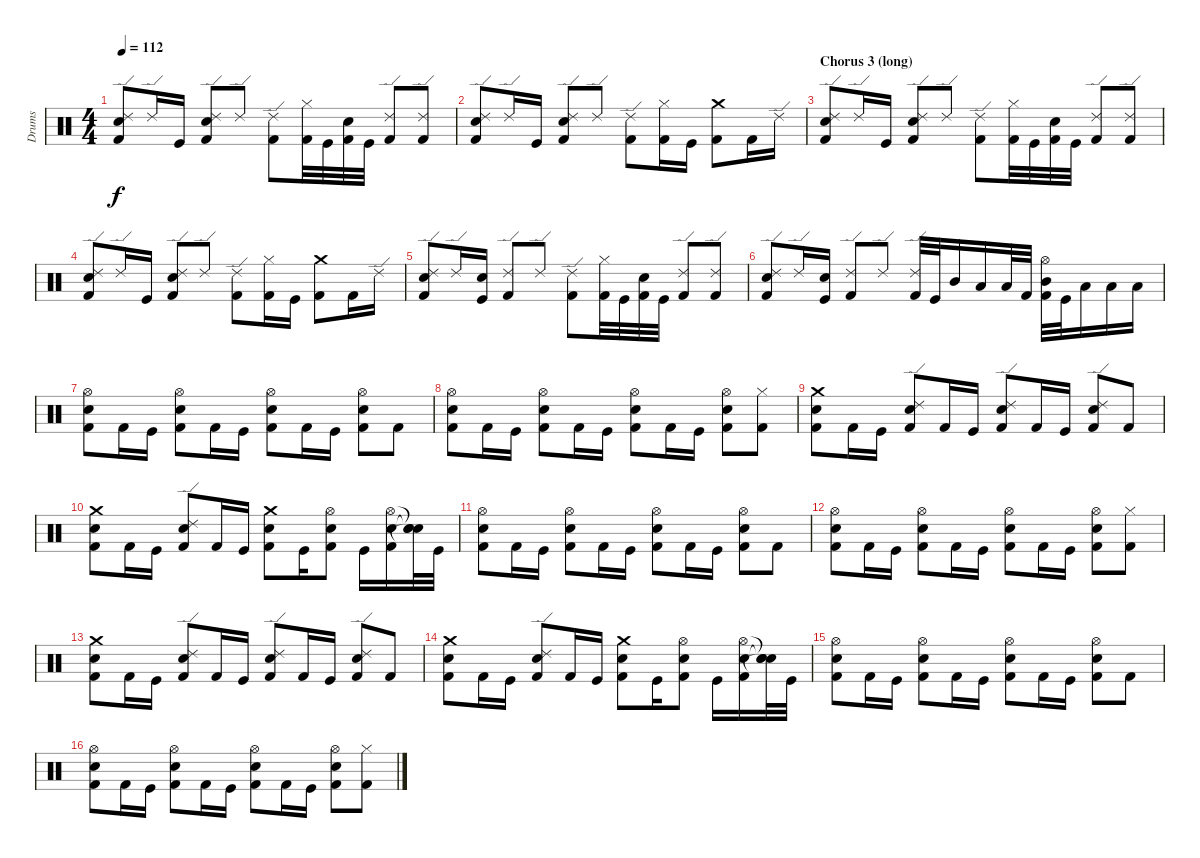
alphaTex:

\track ("Drums" "Drums") {instrument percussion}
\staff {score}
\articulation defaults
\ts (4 4)
\tempo 112
\clef neutral
\ks c
("Ride (edge) 2" "Snare (hit) 2" "Kick (hit) 2").8{dy f} "Ride (edge) 2".16 "Kick (hit)".16 ("Ride (edge) 2" "Snare (hit) 2" "Kick (hit) 2").8 "Ride (edge) 2".8 ("Ride (edge) 2" "Kick (hit) 2").8 ("Hi-Hat (closed)" "Kick (hit) 2").32 "Kick (hit)".32 ("Snare (hit) 2" "Kick (hit) 2").32 "Kick (hit)".32 ("Ride (edge) 2" "Kick (hit) 2").8 ("Ride (edge) 2" "Kick (hit) 2").8 |
("Ride (edge) 2" "Snare (hit) 2" "Kick (hit) 2").8 "Ride (edge) 2".16 "Kick (hit)".16 ("Ride (edge) 2" "Snare (hit) 2" "Kick (hit) 2").8 "Ride (edge) 2".8 ("Ride (edge) 2" "Kick (hit) 2").8 ("Hi-Hat (closed)" "Kick (hit) 2").16 "Kick (hit)".16 ("Crash medium (hit)" "Kick (hit) 2").8 "Kick (hit) 2".16 "Ride (edge) 2".16 |
\section ("" "Chorus 3 (long)")
("Ride (edge) 2" "Snare (hit) 2" "Kick (hit) 2").8 "Ride (edge) 2".16 "Kick (hit)".16 ("Ride (edge) 2" "Snare (hit) 2" "Kick (hit) 2").8 "Ride (edge) 2".8 ("Ride (edge) 2" "Kick (hit) 2").8 ("Hi-Hat (closed)" "Kick (hit) 2").32 "Kick (hit)".32 ("Snare (hit) 2" "Kick (hit) 2").32 "Kick (hit)".32 ("Ride (edge) 2" "Kick (hit) 2").8 ("Ride (edge) 2" "Kick (hit) 2").8 |
("Ride (edge) 2" "Snare (hit) 2" "Kick (hit) 2").8 "Ride (edge) 2".16 "Kick (hit)".16 ("Ride (edge) 2" "Snare (hit) 2" "Kick (hit) 2").8 "Ride (edge) 2".8 ("Ride (edge) 2" "Kick (hit) 2").8 ("Hi-Hat (closed)" "Kick (hit) 2").16 "Kick (hit)".16 ("Crash medium (hit)" "Kick (hit) 2").8 "Kick (hit) 2".16 "Ride (edge) 2".16 |
("Ride (edge) 2" "Snare (hit) 2" "Kick (hit) 2").8 "Ride (edge) 2".16 ("Snare (hit) 2" "Kick (hit)").16 ("Ride (edge) 2" "Kick (hit) 2").8 "Ride (edge) 2".8 ("Ride (edge) 2" "Kick (hit) 2").8 ("Hi-Hat (closed)" "Kick (hit) 2").32 "Kick (hit)".32 ("Snare (hit) 2" "Kick (hit) 2").32 "Kick (hit)".32 ("Ride (edge) 2" "Kick (hit) 2").8 ("Ride (edge) 2" "Kick (hit) 2").8 |
("Ride (edge) 2" "Snare (hit) 2" "Kick (hit) 2").8 "Ride (edge) 2".16 ("Snare (hit) 2" "Kick (hit)").16 ("Ride (edge) 2" "Kick (hit) 2").8 "Ride (edge) 2".8 ("Ride (edge) 2" "Kick (hit) 2").32 "Kick (hit)".32 "Mid Tom (hit)".16 "Low Tom (hit)".16 "Low Tom (hit)".32 "Kick (hit) 2".32 ("Hi-Hat (open)" "Mid Tom (hit)" "Kick (hit) 2").32 "Kick (hit)".32 "Low Tom (hit)".16 "Low Tom (hit)".16 "Low Tom (hit)".16 |
("Hi-Hat (open)" "Snare (hit) 2" "Kick (hit) 2").8 "Kick (hit) 2".16 "Kick (hit)".16 ("Hi-Hat (open)" "Snare (hit) 2" "Kick (hit) 2").8 "Kick (hit) 2".16 "Kick (hit)".16 ("Hi-Hat (open)" "Snare (hit) 2" "Kick (hit) 2").8 "Kick (hit) 2".16 "Kick (hit)".16 ("Hi-Hat (open)" "Snare (hit) 2" "Kick (hit) 2").8 "Kick (hit) 2".8 |
("Hi-Hat (open)" "Snare (hit) 2" "Kick (hit) 2").8 "Kick (hit) 2".16 "Kick (hit)".16 ("Hi-Hat (open)" "Snare (hit) 2" "Kick (hit) 2").8 "Kick (hit) 2".16 "Kick (hit)".16 ("Hi-Hat (open)" "Snare (hit) 2" "Kick (hit) 2").8 "Kick (hit) 2".16 "Kick (hit)".16 ("Hi-Hat (open)" "Snare (hit) 2" "Kick (hit) 2").8 ("Hi-Hat (closed)" "Kick (hit) 2").8 |
("Crash medium (hit)" "Snare (hit) 2" "Kick (hit) 2").8 "Kick (hit) 2".16 "Kick (hit)".16 ("Ride (edge) 2" "Snare (hit) 2" "Kick (hit) 2").8 "Kick (hit) 2".16 "Kick (hit)".16 ("Ride (edge) 2" "Snare (hit) 2" "Kick (hit) 2").8 "Kick (hit) 2".16 "Kick (hit)".16 ("Ride (edge) 2" "Snare (hit) 2" "Kick (hit) 2").8 "Kick (hit) 2".8 |
("Crash medium (hit)" "Snare (hit) 2" "Kick (hit) 2").8 "Kick (hit) 2".16 "Kick (hit)".16 ("Ride (edge) 2" "Snare (hit) 2" "Kick (hit) 2").8 "Kick (hit) 2".16 "Kick (hit)".16 ("Crash medium (hit)" "Snare (hit) 2" "Kick (hit) 2").8 "Kick (hit)".16 ("Hi-Hat (open)" "Snare (hit) 2" "Kick (hit) 2").8 "Kick (hit)".16 ("Hi-Hat (open)" "Snare (hit) 2" "Kick (hit) 2").16 ("Snare (hit)"{t} "Snare (hit)"{t} "Snare (hit)"{t}).32 "Kick (hit)".32 |
("Hi-Hat (open)" "Snare (hit) 2" "Kick (hit) 2").8 "Kick (hit) 2".16 "Kick (hit)".16 ("Hi-Hat (open)" "Snare (hit) 2" "Kick (hit) 2").8 "Kick (hit) 2".16 "Kick (hit)".16 ("Hi-Hat (open)" "Snare (hit) 2" "Kick (hit) 2").8 "Kick (hit) 2".16 "Kick (hit)".16 ("Hi-Hat (open)" "Snare (hit) 2" "Kick (hit) 2").8 "Kick (hit) 2".8 |
("Hi-Hat (open)" "Snare (hit) 2" "Kick (hit) 2").8 "Kick (hit) 2".16 "Kick (hit)".16 ("Hi-Hat (open)" "Snare (hit) 2" "Kick (hit) 2").8 "Kick (hit) 2".16 "Kick (hit)".16 ("Hi-Hat (open)" "Snare (hit) 2" "Kick (hit) 2").8 "Kick (hit) 2".16 "Kick (hit)".16 ("Hi-Hat (open)" "Snare (hit) 2" "Kick (hit) 2").8 ("Hi-Hat (closed)" "Kick (hit) 2").8 |
("Crash medium (hit)" "Snare (hit) 2" "Kick (hit) 2").8 "Kick (hit) 2".16 "Kick (hit)".16 ("Ride (edge) 2" "Snare (hit) 2" "Kick (hit) 2").8 "Kick (hit) 2".16 "Kick (hit)".16 ("Ride (edge) 2" "Snare (hit) 2" "Kick (hit) 2").8 "Kick (hit) 2".16 "Kick (hit)".16 ("Ride (edge) 2" "Snare (hit) 2" "Kick (hit) 2").8 "Kick (hit) 2".8 |
("Crash medium (hit)" "Snare (hit) 2" "Kick (hit) 2").8 "Kick (hit) 2".16 "Kick (hit)".16 ("Ride (edge) 2" "Snare (hit) 2" "Kick (hit) 2").8 "Kick (hit) 2".16 "Kick (hit)".16 ("Crash medium (hit)" "Snare (hit) 2" "Kick (hit) 2").8 "Kick (hit)".16 ("Hi-Hat (open)" "Snare (hit) 2" "Kick (hit) 2").8 "Kick (hit)".16 ("Hi-Hat (open)" "Snare (hit) 2" "Kick (hit) 2").16 ("Snare (hit)"{t} "Snare (hit)"{t} "Snare (hit)"{t}).32 "Kick (hit)".32 |
("Hi-Hat (open)" "Snare (hit) 2" "Kick (hit) 2").8 "Kick (hit) 2".16 "Kick (hit)".16 ("Hi-Hat (open)" "Snare (hit) 2" "Kick (hit) 2").8 "Kick (hit) 2".16 "Kick (hit)".16 ("Hi-Hat (open)" "Snare (hit) 2" "Kick (hit) 2").8 "Kick (hit) 2".16 "Kick (hit)".16 ("Hi-Hat (open)" "Snare (hit) 2" "Kick (hit) 2").8 "Kick (hit) 2".8 |
("Hi-Hat (open)" "Snare (hit) 2" "Kick (hit) 2").8 "Kick (hit) 2".16 "Kick (hit)".16 ("Hi-Hat (open)" "Snare (hit) 2" "Kick (hit) 2").8 "Kick (hit) 2".16 "Kick (hit)".16 ("Hi-Hat (open)" "Snare (hit) 2" "Kick (hit) 2").8 "Kick (hit) 2".16 "Kick (hit)".16 ("Hi-Hat (open)" "Snare (hit) 2" "Kick (hit) 2").8 ("Hi-Hat (closed)" "Kick (hit) 2").8
